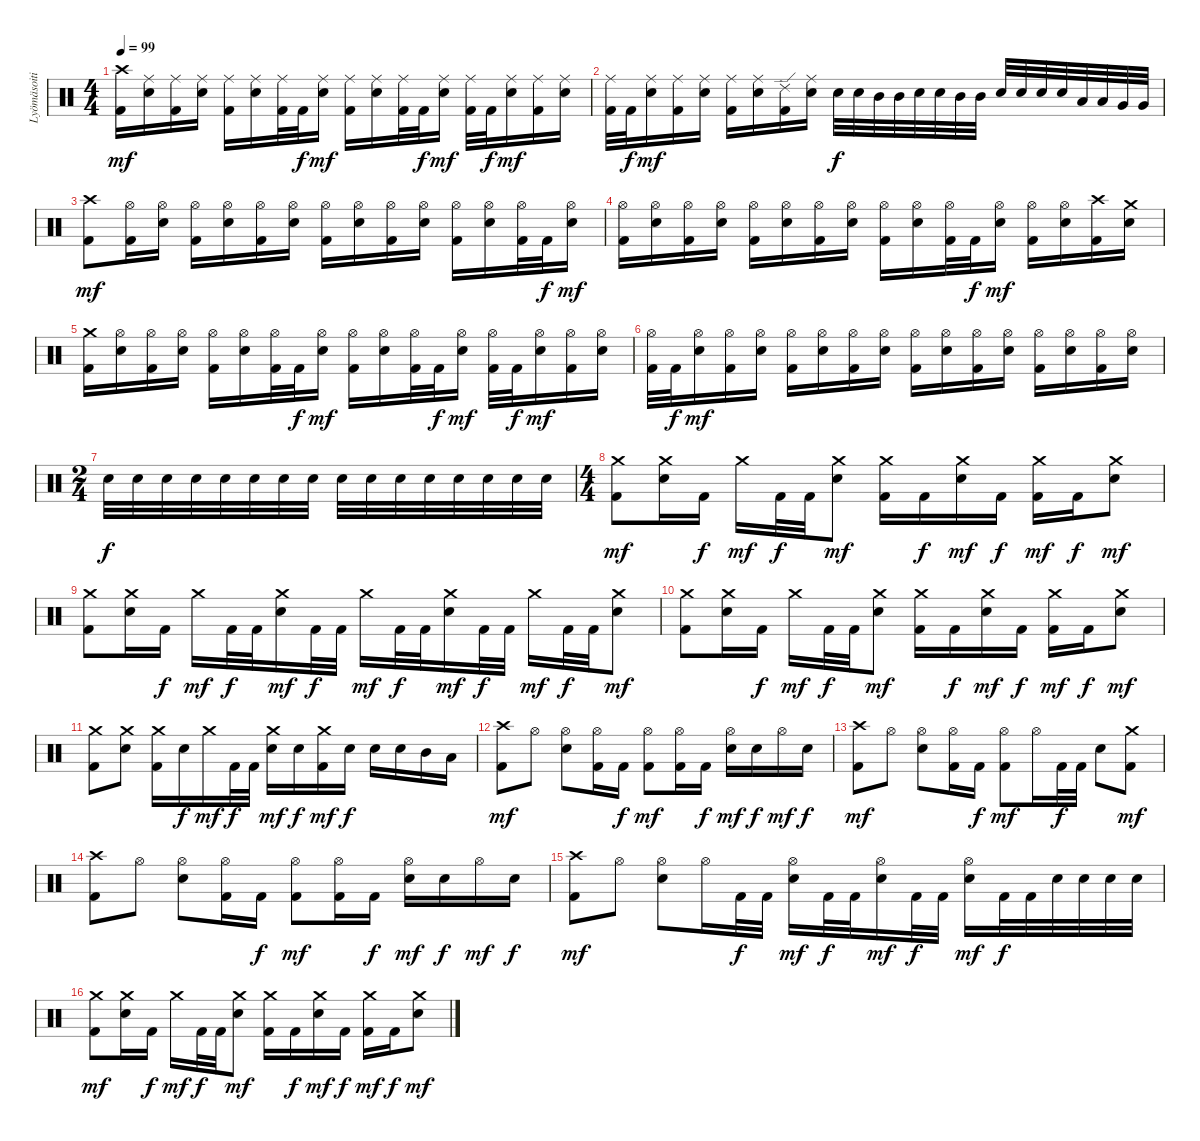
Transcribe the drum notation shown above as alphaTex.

\track ("Lyömäsoitin" "Lyömäsoiti") {instrument percussion}
\staff {score}
\articulation defaults
\ts (4 4)
\tempo 99
\clef neutral
\ks c
("Crash high (hit)" "Kick (hit) 2").16{dy mf} ("Electric Snare (hit)" "Ride (middle)").16 ("Ride (middle)" "Kick (hit) 2").16 ("Electric Snare (hit)" "Ride (middle)").16 ("Ride (middle)" "Kick (hit) 2").16 ("Electric Snare (hit)" "Ride (middle)").16 ("Ride (middle)" "Kick (hit) 2").32 "Kick (hit) 2".32{dy f} ("Electric Snare (hit)" "Ride (middle)").16{dy mf} ("Ride (middle)" "Kick (hit) 2").16 ("Electric Snare (hit)" "Ride (middle)").16 ("Ride (middle)" "Kick (hit) 2").32 "Kick (hit) 2".32{dy f} ("Electric Snare (hit)" "Ride (middle)").16{dy mf} ("Ride (middle)" "Kick (hit) 2").32 "Kick (hit) 2".32{dy f} ("Electric Snare (hit)" "Ride (middle)").16{dy mf} ("Ride (middle)" "Kick (hit) 2").16 ("Electric Snare (hit)" "Ride (middle)").16 |
("Ride (middle)" "Kick (hit) 2").32 "Kick (hit) 2".32{dy f} ("Electric Snare (hit)" "Ride (middle)").16{dy mf} ("Ride (middle)" "Kick (hit) 2").16 ("Electric Snare (hit)" "Ride (middle)").16 ("Ride (middle)" "Kick (hit) 2").16 ("Electric Snare (hit)" "Ride (middle)").16 ("Ride (edge) 2" "Kick (hit) 2").16 ("Electric Snare (hit)" "Ride (middle)").16 "Electric Snare (hit)".32{dy f} "Electric Snare (hit)".32 "Mid Tom (hit)".32 "Mid Tom (hit)".32 "Electric Snare (hit)".32 "Electric Snare (hit)".32 "Mid Tom (hit)".32 "Mid Tom (hit)".32 "Electric Snare (hit)".32 "Electric Snare (hit)".32 "Electric Snare (hit)".32 "Electric Snare (hit)".32 "Low Tom (hit)".32 "Low Tom (hit)".32 "Very Low Tom (hit)".32 "Very Low Tom (hit)".32 |
("Crash high (hit)" "Kick (hit) 2").8{dy mf} ("Hi-Hat (open)" "Kick (hit) 2").16 ("Electric Snare (hit)" "Hi-Hat (open)").16 ("Hi-Hat (open)" "Kick (hit) 2").16 ("Electric Snare (hit)" "Hi-Hat (open)").16 ("Hi-Hat (open)" "Kick (hit) 2").16 ("Electric Snare (hit)" "Hi-Hat (open)").16 ("Hi-Hat (open)" "Kick (hit) 2").16 ("Electric Snare (hit)" "Hi-Hat (open)").16 ("Hi-Hat (open)" "Kick (hit) 2").16 ("Electric Snare (hit)" "Hi-Hat (open)").16 ("Hi-Hat (open)" "Kick (hit) 2").16 ("Electric Snare (hit)" "Hi-Hat (open)").16 ("Hi-Hat (open)" "Kick (hit) 2").32 "Kick (hit) 2".32{dy f} ("Electric Snare (hit)" "Hi-Hat (open)").16{dy mf} |
("Hi-Hat (open)" "Kick (hit) 2").16 ("Electric Snare (hit)" "Hi-Hat (open)").16 ("Hi-Hat (open)" "Kick (hit) 2").16 ("Electric Snare (hit)" "Hi-Hat (open)").16 ("Hi-Hat (open)" "Kick (hit) 2").16 ("Electric Snare (hit)" "Hi-Hat (open)").16 ("Hi-Hat (open)" "Kick (hit) 2").16 ("Electric Snare (hit)" "Hi-Hat (open)").16 ("Hi-Hat (open)" "Kick (hit) 2").16 ("Electric Snare (hit)" "Hi-Hat (open)").16 ("Hi-Hat (open)" "Kick (hit) 2").32 "Kick (hit) 2".32{dy f} ("Electric Snare (hit)" "Hi-Hat (open)").16{dy mf} ("Hi-Hat (open)" "Kick (hit) 2").16 ("Electric Snare (hit)" "Hi-Hat (open)").16 ("Crash high (hit)" "Kick (hit) 2").16 ("Electric Snare (hit)" "Crash medium (hit)").16 |
("Crash medium (hit)" "Kick (hit) 2").16 ("Electric Snare (hit)" "Hi-Hat (open)").16 ("Hi-Hat (open)" "Kick (hit) 2").16 ("Electric Snare (hit)" "Hi-Hat (open)").16 ("Hi-Hat (open)" "Kick (hit) 2").16 ("Electric Snare (hit)" "Hi-Hat (open)").16 ("Hi-Hat (open)" "Kick (hit) 2").32 "Kick (hit) 2".32{dy f} ("Electric Snare (hit)" "Hi-Hat (open)").16{dy mf} ("Hi-Hat (open)" "Kick (hit) 2").16 ("Electric Snare (hit)" "Hi-Hat (open)").16 ("Hi-Hat (open)" "Kick (hit) 2").32 "Kick (hit) 2".32{dy f} ("Electric Snare (hit)" "Hi-Hat (open)").16{dy mf} ("Hi-Hat (open)" "Kick (hit) 2").32 "Kick (hit) 2".32{dy f} ("Electric Snare (hit)" "Hi-Hat (open)").16{dy mf} ("Hi-Hat (open)" "Kick (hit) 2").16 ("Electric Snare (hit)" "Hi-Hat (open)").16 |
("Hi-Hat (open)" "Kick (hit) 2").32 "Kick (hit) 2".32{dy f} ("Electric Snare (hit)" "Hi-Hat (open)").16{dy mf} ("Hi-Hat (open)" "Kick (hit) 2").16 ("Electric Snare (hit)" "Hi-Hat (open)").16 ("Hi-Hat (open)" "Kick (hit) 2").16 ("Electric Snare (hit)" "Hi-Hat (open)").16 ("Hi-Hat (open)" "Kick (hit) 2").16 ("Electric Snare (hit)" "Hi-Hat (open)").16 ("Hi-Hat (open)" "Kick (hit) 2").16 ("Electric Snare (hit)" "Hi-Hat (open)").16 ("Hi-Hat (open)" "Kick (hit) 2").16 ("Electric Snare (hit)" "Hi-Hat (open)").16 ("Hi-Hat (open)" "Kick (hit) 2").16 ("Electric Snare (hit)" "Hi-Hat (open)").16 ("Hi-Hat (open)" "Kick (hit) 2").16 ("Electric Snare (hit)" "Hi-Hat (open)").16 |
\ts (2 4)
"Electric Snare (hit)".32{dy f} "Electric Snare (hit)".32 "Electric Snare (hit)".32 "Electric Snare (hit)".32 "Electric Snare (hit)".32 "Electric Snare (hit)".32 "Electric Snare (hit)".32 "Electric Snare (hit)".32 "Electric Snare (hit)".32 "Electric Snare (hit)".32 "Electric Snare (hit)".32 "Electric Snare (hit)".32 "Electric Snare (hit)".32 "Electric Snare (hit)".32 "Electric Snare (hit)".32 "Electric Snare (hit)".32 |
\ts (4 4)
("Crash medium (hit)" "Kick (hit) 2").8{dy mf} ("Electric Snare (hit)" "Crash medium (hit)").16 "Kick (hit) 2".16{dy f} "Crash medium (hit)".16{dy mf} "Kick (hit) 2".32{dy f} "Kick (hit) 2".32 ("Electric Snare (hit)" "Crash medium (hit)").8{dy mf} ("Crash medium (hit)" "Kick (hit) 2").16 "Kick (hit) 2".16{dy f} ("Electric Snare (hit)" "Crash medium (hit)").16{dy mf} "Kick (hit) 2".16{dy f} ("Crash medium (hit)" "Kick (hit) 2").16{dy mf} "Kick (hit) 2".16{dy f} ("Electric Snare (hit)" "Crash medium (hit)").8{dy mf} |
("Crash medium (hit)" "Kick (hit) 2").8 ("Electric Snare (hit)" "Crash medium (hit)").16 "Kick (hit) 2".16{dy f} "Crash medium (hit)".16{dy mf} "Kick (hit) 2".32{dy f} "Kick (hit) 2".32 ("Electric Snare (hit)" "Crash medium (hit)").16{dy mf} "Kick (hit) 2".32{dy f} "Kick (hit) 2".32 "Crash medium (hit)".16{dy mf} "Kick (hit) 2".32{dy f} "Kick (hit) 2".32 ("Electric Snare (hit)" "Crash medium (hit)").16{dy mf} "Kick (hit) 2".32{dy f} "Kick (hit) 2".32 "Crash medium (hit)".16{dy mf} "Kick (hit) 2".32{dy f} "Kick (hit) 2".32 ("Electric Snare (hit)" "Crash medium (hit)").8{dy mf} |
("Crash medium (hit)" "Kick (hit) 2").8 ("Electric Snare (hit)" "Crash medium (hit)").16 "Kick (hit) 2".16{dy f} "Crash medium (hit)".16{dy mf} "Kick (hit) 2".32{dy f} "Kick (hit) 2".32 ("Electric Snare (hit)" "Crash medium (hit)").8{dy mf} ("Crash medium (hit)" "Kick (hit) 2").16 "Kick (hit) 2".16{dy f} ("Electric Snare (hit)" "Crash medium (hit)").16{dy mf} "Kick (hit) 2".16{dy f} ("Crash medium (hit)" "Kick (hit) 2").16{dy mf} "Kick (hit) 2".16{dy f} ("Electric Snare (hit)" "Crash medium (hit)").8{dy mf} |
("Crash medium (hit)" "Kick (hit) 2").8 ("Electric Snare (hit)" "Crash medium (hit)").8 ("Crash medium (hit)" "Kick (hit) 2").16 "Electric Snare (hit)".16{dy f} "Crash medium (hit)".16{dy mf} "Kick (hit) 2".32{dy f} "Kick (hit) 2".32 ("Electric Snare (hit)" "Crash medium (hit)").16{dy mf} "Electric Snare (hit)".16{dy f} ("Crash medium (hit)" "Kick (hit) 2").16{dy mf} "Electric Snare (hit)".16{dy f} "Electric Snare (hit)".16 "Electric Snare (hit)".16 "Mid Tom (hit)".16 "Low Tom (hit)".16 |
("Crash high (hit)" "Kick (hit) 2").8{dy mf} "Hi-Hat (open)".8 ("Electric Snare (hit)" "Hi-Hat (open)").8 ("Hi-Hat (open)" "Kick (hit) 2").16 "Kick (hit) 2".16{dy f} ("Hi-Hat (open)" "Kick (hit) 2").8{dy mf} ("Hi-Hat (open)" "Kick (hit) 2").16 "Kick (hit) 2".16{dy f} ("Electric Snare (hit)" "Hi-Hat (open)").16{dy mf} "Electric Snare (hit)".16{dy f} "Hi-Hat (open)".16{dy mf} "Electric Snare (hit)".16{dy f} |
("Crash high (hit)" "Kick (hit) 2").8{dy mf} "Hi-Hat (open)".8 ("Electric Snare (hit)" "Hi-Hat (open)").8 ("Hi-Hat (open)" "Kick (hit) 2").16 "Kick (hit) 2".16{dy f} ("Hi-Hat (open)" "Kick (hit) 2").8{dy mf} "Hi-Hat (open)".16 "Kick (hit) 2".32{dy f} "Kick (hit) 2".32 "Electric Snare (hit)".8 ("Crash medium (hit)" "Kick (hit) 2").8{dy mf} |
("Crash high (hit)" "Kick (hit) 2").8 "Hi-Hat (open)".8 ("Electric Snare (hit)" "Hi-Hat (open)").8 ("Hi-Hat (open)" "Kick (hit) 2").16 "Kick (hit) 2".16{dy f} ("Hi-Hat (open)" "Kick (hit) 2").8{dy mf} ("Hi-Hat (open)" "Kick (hit) 2").16 "Kick (hit) 2".16{dy f} ("Electric Snare (hit)" "Hi-Hat (open)").16{dy mf} "Electric Snare (hit)".16{dy f} "Hi-Hat (open)".16{dy mf} "Electric Snare (hit)".16{dy f} |
("Crash high (hit)" "Kick (hit) 2").8{dy mf} "Hi-Hat (open)".8 ("Electric Snare (hit)" "Hi-Hat (open)").8 "Hi-Hat (open)".16 "Kick (hit) 2".32{dy f} "Kick (hit) 2".32 ("Electric Snare (hit)" "Hi-Hat (open)").16{dy mf} "Kick (hit) 2".32{dy f} "Kick (hit) 2".32 ("Electric Snare (hit)" "Hi-Hat (open)").16{dy mf} "Kick (hit) 2".32{dy f} "Kick (hit) 2".32 ("Electric Snare (hit)" "Hi-Hat (open)").16{dy mf} "Kick (hit) 2".32{dy f} "Kick (hit) 2".32 "Electric Snare (hit)".32 "Electric Snare (hit)".32 "Electric Snare (hit)".32 "Electric Snare (hit)".32 |
("Crash medium (hit)" "Kick (hit) 2").8{dy mf} ("Electric Snare (hit)" "Crash medium (hit)").16 "Kick (hit) 2".16{dy f} "Crash medium (hit)".16{dy mf} "Kick (hit) 2".32{dy f} "Kick (hit) 2".32 ("Electric Snare (hit)" "Crash medium (hit)").8{dy mf} ("Crash medium (hit)" "Kick (hit) 2").16 "Kick (hit) 2".16{dy f} ("Electric Snare (hit)" "Crash medium (hit)").16{dy mf} "Kick (hit) 2".16{dy f} ("Crash medium (hit)" "Kick (hit) 2").16{dy mf} "Kick (hit) 2".16{dy f} ("Electric Snare (hit)" "Crash medium (hit)").8{dy mf}
